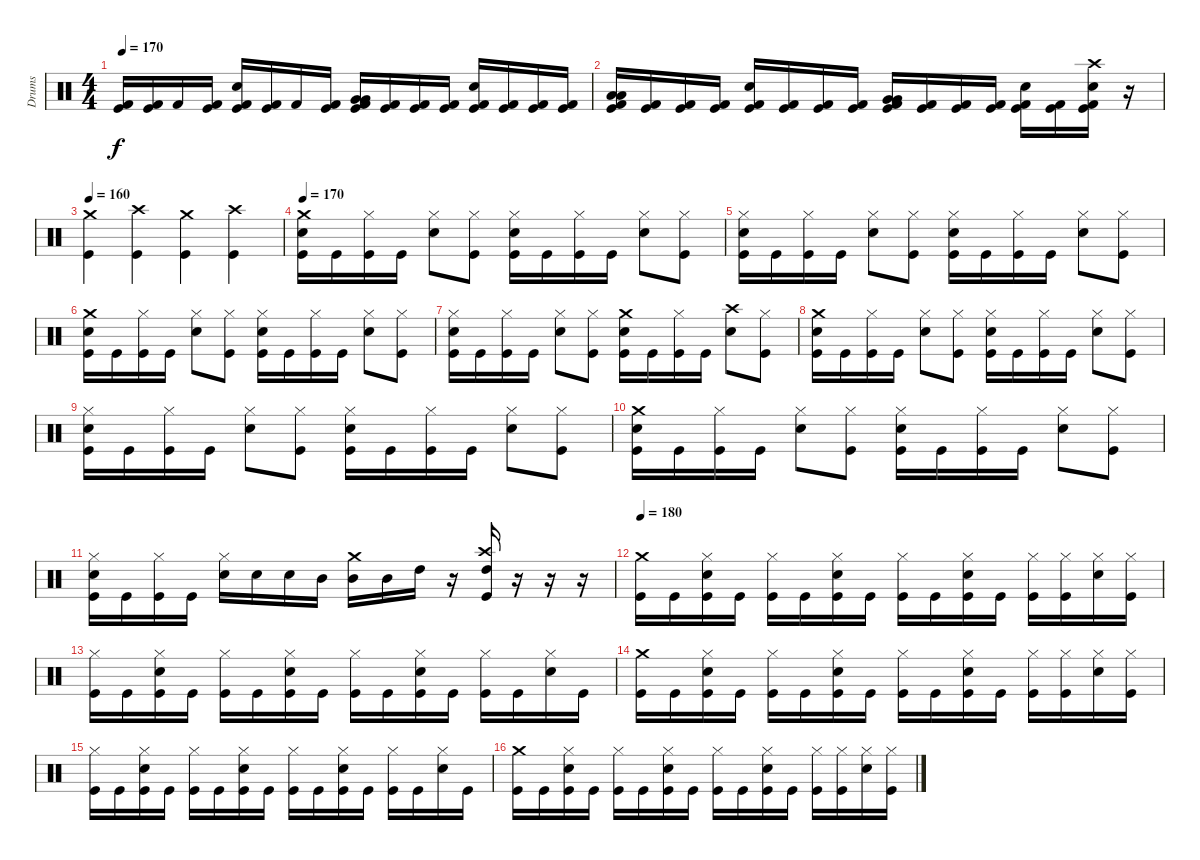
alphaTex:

\track ("Drums" "Drums") {instrument percussion}
\staff {score}
\articulation defaults
\ts (4 4)
\tempo 170
\clef neutral
\ks c
("Kick (hit)" "Kick (hit) 2").16{dy f} ("Kick (hit)" "Kick (hit) 2").16 "Kick (hit) 2".16 ("Kick (hit)" "Kick (hit) 2").16 ("Snare (hit) 2" "Kick (hit)" "Kick (hit) 2").16 ("Kick (hit)" "Kick (hit) 2").16 "Kick (hit) 2".16 ("Kick (hit)" "Kick (hit) 2").16 ("Very Low Tom (hit)" "Very Low Tom (hit)" "Kick (hit)" "Kick (hit) 2").16 ("Kick (hit)" "Kick (hit) 2").16 ("Kick (hit)" "Kick (hit) 2").16 ("Kick (hit)" "Kick (hit) 2").16 ("Snare (hit) 2" "Kick (hit)" "Kick (hit) 2").16 ("Kick (hit)" "Kick (hit) 2").16 ("Kick (hit)" "Kick (hit) 2").16 ("Kick (hit)" "Kick (hit) 2").16 |
("Low Tom (hit)" "Low Tom (hit)" "Kick (hit)" "Kick (hit) 2").16 ("Kick (hit)" "Kick (hit) 2").16 ("Kick (hit)" "Kick (hit) 2").16 ("Kick (hit)" "Kick (hit) 2").16 ("Snare (hit) 2" "Kick (hit)" "Kick (hit) 2").16 ("Kick (hit)" "Kick (hit) 2").16 ("Kick (hit)" "Kick (hit) 2").16 ("Kick (hit)" "Kick (hit) 2").16 ("Very Low Tom (hit)" "Very Low Tom (hit)" "Kick (hit)" "Kick (hit) 2").16 ("Kick (hit)" "Kick (hit) 2").16 ("Kick (hit)" "Kick (hit) 2").16 ("Kick (hit)" "Kick (hit) 2").16 ("Snare (hit) 2" "Kick (hit)" "Kick (hit) 2").16 ("Kick (hit)" "Kick (hit) 2").16 ("Crash high (hit)" "Snare (hit) 2" "Kick (hit)" "Kick (hit) 2").16 r.16 |
\tempo 160
("Crash medium (hit)" "Kick (hit)").4 ("Crash high (hit)" "Kick (hit)").4 ("Crash medium (hit)" "Kick (hit)").4 ("Crash high (hit)" "Kick (hit)").4 |
\tempo 170
("Crash medium (hit)" "Snare (hit) 2" "Kick (hit)").16 "Kick (hit)".16 ("Hi-Hat (closed)" "Kick (hit)").16 "Kick (hit)".16 ("Hi-Hat (closed)" "Snare (hit) 2").8 ("Hi-Hat (closed)" "Kick (hit)").8 ("Hi-Hat (closed)" "Snare (hit) 2" "Kick (hit)").16 "Kick (hit)".16 ("Hi-Hat (closed)" "Kick (hit)").16 "Kick (hit)".16 ("Hi-Hat (closed)" "Snare (hit) 2").8 ("Hi-Hat (closed)" "Kick (hit)").8 |
("Hi-Hat (closed)" "Snare (hit) 2" "Kick (hit)").16 "Kick (hit)".16 ("Hi-Hat (closed)" "Kick (hit)").16 "Kick (hit)".16 ("Hi-Hat (closed)" "Snare (hit) 2").8 ("Hi-Hat (closed)" "Kick (hit)").8 ("Hi-Hat (closed)" "Snare (hit) 2" "Kick (hit)").16 "Kick (hit)".16 ("Hi-Hat (closed)" "Kick (hit)").16 "Kick (hit)".16 ("Hi-Hat (closed)" "Snare (hit) 2").8 ("Hi-Hat (closed)" "Kick (hit)").8 |
("Crash medium (hit)" "Snare (hit) 2" "Kick (hit)").16 "Kick (hit)".16 ("Hi-Hat (closed)" "Kick (hit)").16 "Kick (hit)".16 ("Hi-Hat (closed)" "Snare (hit) 2").8 ("Hi-Hat (closed)" "Kick (hit)").8 ("Hi-Hat (closed)" "Snare (hit) 2" "Kick (hit)").16 "Kick (hit)".16 ("Hi-Hat (closed)" "Kick (hit)").16 "Kick (hit)".16 ("Hi-Hat (closed)" "Snare (hit) 2").8 ("Hi-Hat (closed)" "Kick (hit)").8 |
("Hi-Hat (closed)" "Snare (hit) 2" "Kick (hit)").16 "Kick (hit)".16 ("Hi-Hat (closed)" "Kick (hit)").16 "Kick (hit)".16 ("Hi-Hat (closed)" "Snare (hit) 2").8 ("Hi-Hat (closed)" "Kick (hit)").8 ("Crash medium (hit)" "Snare (hit) 2" "Kick (hit)").16 "Kick (hit)".16 ("Hi-Hat (closed)" "Kick (hit)").16 "Kick (hit)".16 ("Crash high (hit)" "Snare (hit) 2").8 ("Hi-Hat (closed)" "Kick (hit)").8 |
("Crash medium (hit)" "Snare (hit) 2" "Kick (hit)").16 "Kick (hit)".16 ("Hi-Hat (closed)" "Kick (hit)").16 "Kick (hit)".16 ("Hi-Hat (closed)" "Snare (hit) 2").8 ("Hi-Hat (closed)" "Kick (hit)").8 ("Hi-Hat (closed)" "Snare (hit) 2" "Kick (hit)").16 "Kick (hit)".16 ("Hi-Hat (closed)" "Kick (hit)").16 "Kick (hit)".16 ("Hi-Hat (closed)" "Snare (hit) 2").8 ("Hi-Hat (closed)" "Kick (hit)").8 |
("Hi-Hat (closed)" "Snare (hit) 2" "Kick (hit)").16 "Kick (hit)".16 ("Hi-Hat (closed)" "Kick (hit)").16 "Kick (hit)".16 ("Hi-Hat (closed)" "Snare (hit) 2").8 ("Hi-Hat (closed)" "Kick (hit)").8 ("Hi-Hat (closed)" "Snare (hit) 2" "Kick (hit)").16 "Kick (hit)".16 ("Hi-Hat (closed)" "Kick (hit)").16 "Kick (hit)".16 ("Hi-Hat (closed)" "Snare (hit) 2").8 ("Hi-Hat (closed)" "Kick (hit)").8 |
("Crash medium (hit)" "Snare (hit) 2" "Kick (hit)").16 "Kick (hit)".16 ("Hi-Hat (closed)" "Kick (hit)").16 "Kick (hit)".16 ("Hi-Hat (closed)" "Snare (hit) 2").8 ("Hi-Hat (closed)" "Kick (hit)").8 ("Hi-Hat (closed)" "Snare (hit) 2" "Kick (hit)").16 "Kick (hit)".16 ("Hi-Hat (closed)" "Kick (hit)").16 "Kick (hit)".16 ("Hi-Hat (closed)" "Snare (hit) 2").8 ("Hi-Hat (closed)" "Kick (hit)").8 |
("Hi-Hat (closed)" "Snare (hit) 2" "Kick (hit)").16 "Kick (hit)".16 ("Hi-Hat (closed)" "Kick (hit)").16 "Kick (hit)".16 ("Hi-Hat (closed)" "Snare (hit) 2").16 "Snare (hit) 2".16 "Snare (hit) 2".16 "Mid Tom (hit)".16 ("Crash medium (hit)" "Mid Tom (hit)").16 "Mid Tom (hit)".16 "High Tom (hit)".16 r.16 ("Crash high (hit)" "High Tom (hit)" "Kick (hit)").16 r.16 r.16 r.16 |
\tempo 180
("Crash medium (hit)" "Kick (hit)").16 "Kick (hit)".16 ("Hi-Hat (closed)" "Snare (hit) 2" "Kick (hit)").16 "Kick (hit)".16 ("Hi-Hat (closed)" "Kick (hit)").16 "Kick (hit)".16 ("Hi-Hat (closed)" "Snare (hit) 2" "Kick (hit)").16 "Kick (hit)".16 ("Hi-Hat (closed)" "Kick (hit)").16 "Kick (hit)".16 ("Hi-Hat (closed)" "Snare (hit) 2" "Kick (hit)").16 "Kick (hit)".16 ("Hi-Hat (closed)" "Kick (hit)").16 ("Hi-Hat (closed)" "Kick (hit)").16 ("Hi-Hat (closed)" "Snare (hit) 2").16 ("Hi-Hat (closed)" "Kick (hit)").16 |
("Hi-Hat (closed)" "Kick (hit)").16 "Kick (hit)".16 ("Hi-Hat (closed)" "Snare (hit) 2" "Kick (hit)").16 "Kick (hit)".16 ("Hi-Hat (closed)" "Kick (hit)").16 "Kick (hit)".16 ("Hi-Hat (closed)" "Snare (hit) 2" "Kick (hit)").16 "Kick (hit)".16 ("Hi-Hat (closed)" "Kick (hit)").16 "Kick (hit)".16 ("Hi-Hat (closed)" "Snare (hit) 2" "Kick (hit)").16 "Kick (hit)".16 ("Hi-Hat (closed)" "Kick (hit)").16 "Kick (hit)".16 ("Hi-Hat (closed)" "Snare (hit) 2").16 "Kick (hit)".16 |
("Crash medium (hit)" "Kick (hit)").16 "Kick (hit)".16 ("Hi-Hat (closed)" "Snare (hit) 2" "Kick (hit)").16 "Kick (hit)".16 ("Hi-Hat (closed)" "Kick (hit)").16 "Kick (hit)".16 ("Hi-Hat (closed)" "Snare (hit) 2" "Kick (hit)").16 "Kick (hit)".16 ("Hi-Hat (closed)" "Kick (hit)").16 "Kick (hit)".16 ("Hi-Hat (closed)" "Snare (hit) 2" "Kick (hit)").16 "Kick (hit)".16 ("Hi-Hat (closed)" "Kick (hit)").16 ("Hi-Hat (closed)" "Kick (hit)").16 ("Hi-Hat (closed)" "Snare (hit) 2").16 ("Hi-Hat (closed)" "Kick (hit)").16 |
("Hi-Hat (closed)" "Kick (hit)").16 "Kick (hit)".16 ("Hi-Hat (closed)" "Snare (hit) 2" "Kick (hit)").16 "Kick (hit)".16 ("Hi-Hat (closed)" "Kick (hit)").16 "Kick (hit)".16 ("Hi-Hat (closed)" "Snare (hit) 2" "Kick (hit)").16 "Kick (hit)".16 ("Hi-Hat (closed)" "Kick (hit)").16 "Kick (hit)".16 ("Hi-Hat (closed)" "Snare (hit) 2" "Kick (hit)").16 "Kick (hit)".16 ("Hi-Hat (closed)" "Kick (hit)").16 "Kick (hit)".16 ("Hi-Hat (closed)" "Snare (hit) 2").16 "Kick (hit)".16 |
("Crash medium (hit)" "Kick (hit)").16 "Kick (hit)".16 ("Hi-Hat (closed)" "Snare (hit) 2" "Kick (hit)").16 "Kick (hit)".16 ("Hi-Hat (closed)" "Kick (hit)").16 "Kick (hit)".16 ("Hi-Hat (closed)" "Snare (hit) 2" "Kick (hit)").16 "Kick (hit)".16 ("Hi-Hat (closed)" "Kick (hit)").16 "Kick (hit)".16 ("Hi-Hat (closed)" "Snare (hit) 2" "Kick (hit)").16 "Kick (hit)".16 ("Hi-Hat (closed)" "Kick (hit)").16 ("Hi-Hat (closed)" "Kick (hit)").16 ("Hi-Hat (closed)" "Snare (hit) 2").16 ("Hi-Hat (closed)" "Kick (hit)").16
